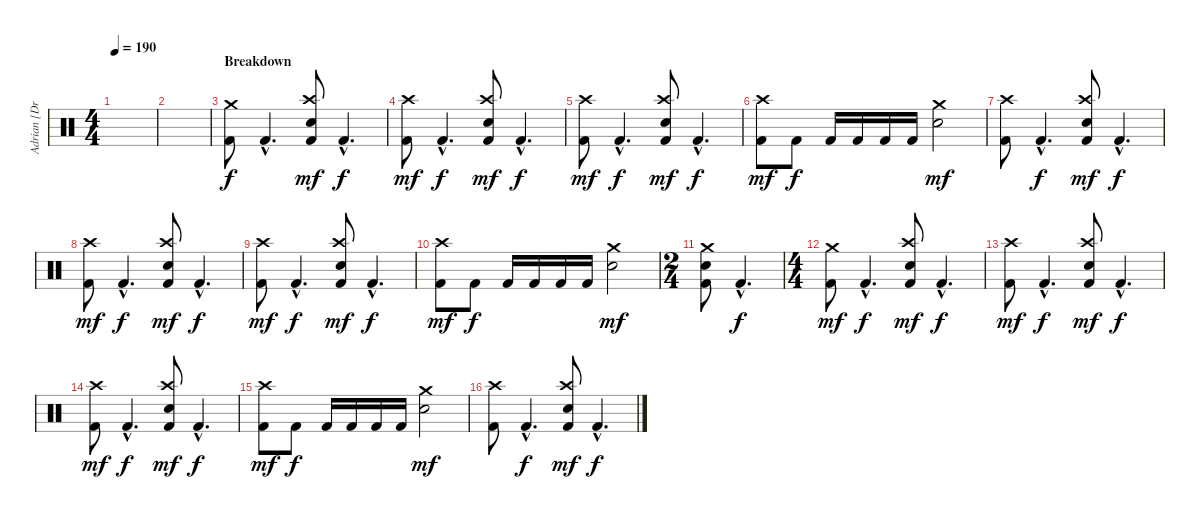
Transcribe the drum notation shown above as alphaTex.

\track ("Adrian [Drums]" "Adrian [Dr") {instrument percussion}
\staff {score}
\articulation defaults
\ts (4 4)
\tempo 190
\clef neutral
\ks c
|
|
\section ("" "Breakdown")
("Crash medium (hit)" "Kick (hit) 2").8 "Kick (hit) 2"{hac}.4{d dy f} ("Crash high (hit)" "Electric Snare (hit)" "Kick (hit) 2").8{dy mf} "Kick (hit) 2"{hac}.4{d dy f} |
("Crash high (hit)" "Kick (hit) 2").8{dy mf} "Kick (hit) 2"{hac}.4{d dy f} ("Crash high (hit)" "Electric Snare (hit)" "Kick (hit) 2").8{dy mf} "Kick (hit) 2"{hac}.4{d dy f} |
("Crash high (hit)" "Kick (hit) 2").8{dy mf} "Kick (hit) 2"{hac}.4{d dy f} ("Crash high (hit)" "Electric Snare (hit)" "Kick (hit) 2").8{dy mf} "Kick (hit) 2"{hac}.4{d dy f} |
("Crash high (hit)" "Kick (hit) 2").8{dy mf} "Kick (hit) 2".8{dy f} "Kick (hit) 2".16 "Kick (hit) 2".16 "Kick (hit) 2".16 "Kick (hit) 2".16 ("Crash medium (hit)" "Electric Snare (hit)").2{dy mf} |
("Crash high (hit)" "Kick (hit) 2").8 "Kick (hit) 2"{hac}.4{d dy f} ("Crash high (hit)" "Electric Snare (hit)" "Kick (hit) 2").8{dy mf} "Kick (hit) 2"{hac}.4{d dy f} |
("Crash high (hit)" "Kick (hit) 2").8{dy mf} "Kick (hit) 2"{hac}.4{d dy f} ("Crash high (hit)" "Electric Snare (hit)" "Kick (hit) 2").8{dy mf} "Kick (hit) 2"{hac}.4{d dy f} |
("Crash high (hit)" "Kick (hit) 2").8{dy mf} "Kick (hit) 2"{hac}.4{d dy f} ("Crash high (hit)" "Electric Snare (hit)" "Kick (hit) 2").8{dy mf} "Kick (hit) 2"{hac}.4{d dy f} |
("Crash high (hit)" "Kick (hit) 2").8{dy mf} "Kick (hit) 2".8{dy f} "Kick (hit) 2".16 "Kick (hit) 2".16 "Kick (hit) 2".16 "Kick (hit) 2".16 ("Crash medium (hit)" "Electric Snare (hit)").2{dy mf} |
\ts (2 4)
("Crash medium (hit)" "Electric Snare (hit)" "Kick (hit) 2").8 "Kick (hit) 2"{hac}.4{d dy f} |
\ts (4 4)
("Crash medium (hit)" "Kick (hit) 2").8{dy mf} "Kick (hit) 2"{hac}.4{d dy f} ("Crash high (hit)" "Electric Snare (hit)" "Kick (hit) 2").8{dy mf} "Kick (hit) 2"{hac}.4{d dy f} |
("Crash high (hit)" "Kick (hit) 2").8{dy mf} "Kick (hit) 2"{hac}.4{d dy f} ("Crash high (hit)" "Electric Snare (hit)" "Kick (hit) 2").8{dy mf} "Kick (hit) 2"{hac}.4{d dy f} |
("Crash high (hit)" "Kick (hit) 2").8{dy mf} "Kick (hit) 2"{hac}.4{d dy f} ("Crash high (hit)" "Electric Snare (hit)" "Kick (hit) 2").8{dy mf} "Kick (hit) 2"{hac}.4{d dy f} |
("Crash high (hit)" "Kick (hit) 2").8{dy mf} "Kick (hit) 2".8{dy f} "Kick (hit) 2".16 "Kick (hit) 2".16 "Kick (hit) 2".16 "Kick (hit) 2".16 ("Crash medium (hit)" "Electric Snare (hit)").2{dy mf} |
("Crash high (hit)" "Kick (hit) 2").8 "Kick (hit) 2"{hac}.4{d dy f} ("Crash high (hit)" "Electric Snare (hit)" "Kick (hit) 2").8{dy mf} "Kick (hit) 2"{hac}.4{d dy f}
